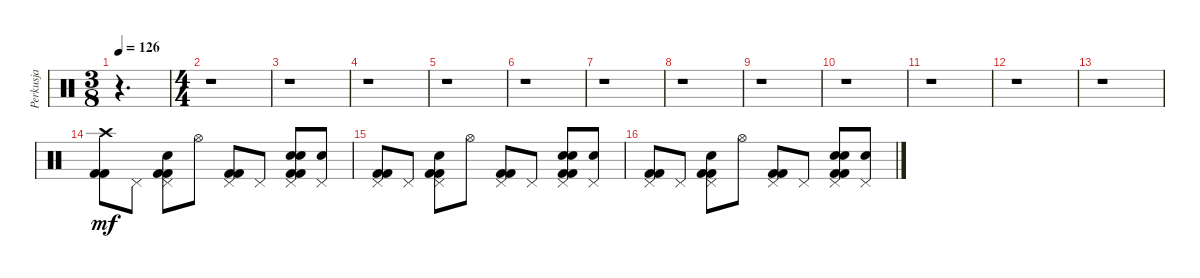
\track ("Perkusja" "Perkusja") {instrument percussion}
\staff {score}
\articulation defaults
\ts (3 8)
\tempo 126
\clef neutral
\ks c
r.4{d dy mf} |
\ts (4 4)
r.1 |
r.1 |
r.1 |
r.1 |
r.1 |
r.1 |
r.1 |
r.1 |
r.1 |
r.1 |
r.1 |
r.1 |
("Crash high (hit)" "Kick (hit) 2" "Kick (hit) 2").8 "Pedal Hi-Hat (hit)".8 ("Pedal Hi-Hat (hit)" "Snare (hit) 2" "Kick (hit) 2" "Kick (hit) 2").8 "Hi-Hat (open)".8 ("Pedal Hi-Hat (hit)" "Kick (hit) 2" "Kick (hit) 2").8 "Pedal Hi-Hat (hit)".8 ("Pedal Hi-Hat (hit)" "Hand Clap (hit)" "Snare (hit) 2" "Kick (hit) 2" "Kick (hit) 2").8 ("Pedal Hi-Hat (hit)" "Hand Clap (hit)").8 |
("Pedal Hi-Hat (hit)" "Kick (hit) 2" "Kick (hit) 2").8 "Pedal Hi-Hat (hit)".8 ("Pedal Hi-Hat (hit)" "Snare (hit) 2" "Kick (hit) 2" "Kick (hit) 2").8 "Hi-Hat (open)".8 ("Pedal Hi-Hat (hit)" "Kick (hit) 2" "Kick (hit) 2").8 "Pedal Hi-Hat (hit)".8 ("Pedal Hi-Hat (hit)" "Hand Clap (hit)" "Snare (hit) 2" "Kick (hit) 2" "Kick (hit) 2").8 ("Pedal Hi-Hat (hit)" "Hand Clap (hit)").8 |
("Pedal Hi-Hat (hit)" "Kick (hit) 2" "Kick (hit) 2").8 "Pedal Hi-Hat (hit)".8 ("Pedal Hi-Hat (hit)" "Snare (hit) 2" "Kick (hit) 2" "Kick (hit) 2").8 "Hi-Hat (open)".8 ("Pedal Hi-Hat (hit)" "Kick (hit) 2" "Kick (hit) 2").8 "Pedal Hi-Hat (hit)".8 ("Pedal Hi-Hat (hit)" "Hand Clap (hit)" "Snare (hit) 2" "Kick (hit) 2" "Kick (hit) 2").8 ("Pedal Hi-Hat (hit)" "Hand Clap (hit)").8
